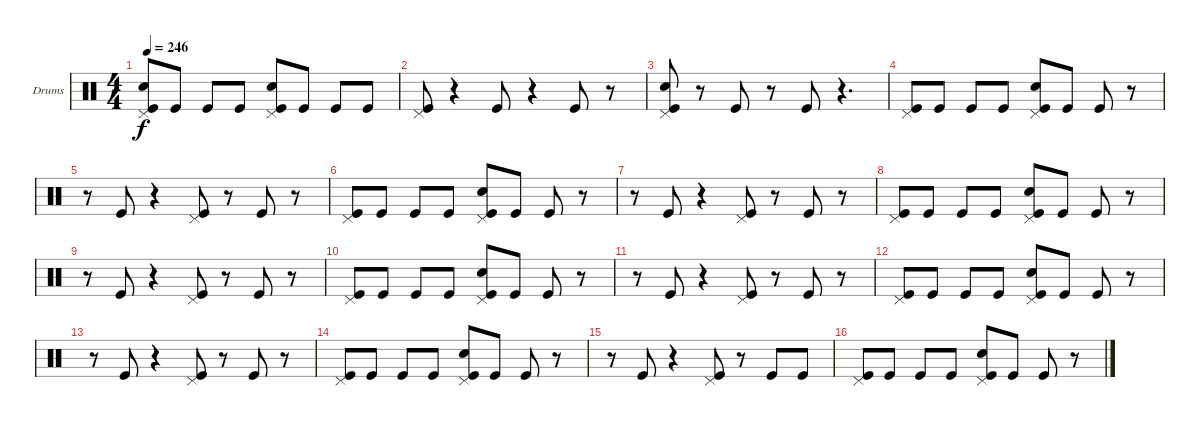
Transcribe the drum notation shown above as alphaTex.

\bracketExtendMode groupsimilarinstruments
\firstSystemTrackNameOrientation horizontal
\otherSystemsTrackNameOrientation horizontal
\track ("Drumkit" "Drums") {instrument percussion}
\staff {score}
\articulation defaults
\ts (4 4)
\tempo 246
\clef neutral
\ks c
("Kick (hit)" "Snare (hit) 2" "Pedal Hi-Hat (hit)").8{dy f} "Kick (hit)".8 "Kick (hit)".8 "Kick (hit)".8 ("Snare (hit) 2" "Pedal Hi-Hat (hit)" "Kick (hit)").8 "Kick (hit)".8 "Kick (hit)".8 "Kick (hit)".8 |
("Pedal Hi-Hat (hit)" "Kick (hit)").8 r.4 "Kick (hit)".8 r.4 "Kick (hit)".8 r.8 |
("Snare (hit) 2" "Pedal Hi-Hat (hit)" "Kick (hit)").8 r.8 "Kick (hit)".8 r.8 "Kick (hit)".8 r.4{d} |
("Kick (hit)" "Pedal Hi-Hat (hit)").8 "Kick (hit)".8 "Kick (hit)".8 "Kick (hit)".8 ("Kick (hit)" "Pedal Hi-Hat (hit)" "Snare (hit) 2").8 "Kick (hit)".8 "Kick (hit)".8 r.8 |
r.8 "Kick (hit)".8 r.4 ("Pedal Hi-Hat (hit)" "Kick (hit)").8 r.8 "Kick (hit)".8 r.8 |
("Kick (hit)" "Pedal Hi-Hat (hit)").8 "Kick (hit)".8 "Kick (hit)".8 "Kick (hit)".8 ("Kick (hit)" "Pedal Hi-Hat (hit)" "Snare (hit) 2").8 "Kick (hit)".8 "Kick (hit)".8 r.8 |
r.8 "Kick (hit)".8 r.4 ("Kick (hit)" "Pedal Hi-Hat (hit)").8 r.8 "Kick (hit)".8 r.8 |
("Kick (hit)" "Pedal Hi-Hat (hit)").8 "Kick (hit)".8 "Kick (hit)".8 "Kick (hit)".8 ("Kick (hit)" "Pedal Hi-Hat (hit)" "Snare (hit) 2").8 "Kick (hit)".8 "Kick (hit)".8 r.8 |
r.8 "Kick (hit)".8 r.4 ("Pedal Hi-Hat (hit)" "Kick (hit)").8 r.8 "Kick (hit)".8 r.8 |
("Kick (hit)" "Pedal Hi-Hat (hit)").8 "Kick (hit)".8 "Kick (hit)".8 "Kick (hit)".8 ("Snare (hit) 2" "Kick (hit)" "Pedal Hi-Hat (hit)").8 "Kick (hit)".8 "Kick (hit)".8 r.8 |
r.8 "Kick (hit)".8 r.4 ("Kick (hit)" "Pedal Hi-Hat (hit)").8 r.8 "Kick (hit)".8 r.8 |
("Pedal Hi-Hat (hit)" "Kick (hit)").8 "Kick (hit)".8 "Kick (hit)".8 "Kick (hit)".8 ("Pedal Hi-Hat (hit)" "Snare (hit) 2" "Kick (hit)").8 "Kick (hit)".8 "Kick (hit)".8 r.8 |
r.8 "Kick (hit)".8 r.4 ("Kick (hit)" "Pedal Hi-Hat (hit)").8 r.8 "Kick (hit)".8 r.8 |
("Kick (hit)" "Pedal Hi-Hat (hit)").8 "Kick (hit)".8 "Kick (hit)".8 "Kick (hit)".8 ("Kick (hit)" "Pedal Hi-Hat (hit)" "Snare (hit) 2").8 "Kick (hit)".8 "Kick (hit)".8 r.8 |
r.8 "Kick (hit)".8 r.4 ("Pedal Hi-Hat (hit)" "Kick (hit)").8 r.8 "Kick (hit)".8 "Kick (hit)".8 |
("Kick (hit)" "Pedal Hi-Hat (hit)").8 "Kick (hit)".8 "Kick (hit)".8 "Kick (hit)".8 ("Kick (hit)" "Pedal Hi-Hat (hit)" "Snare (hit) 2").8 "Kick (hit)".8 "Kick (hit)".8 r.8
